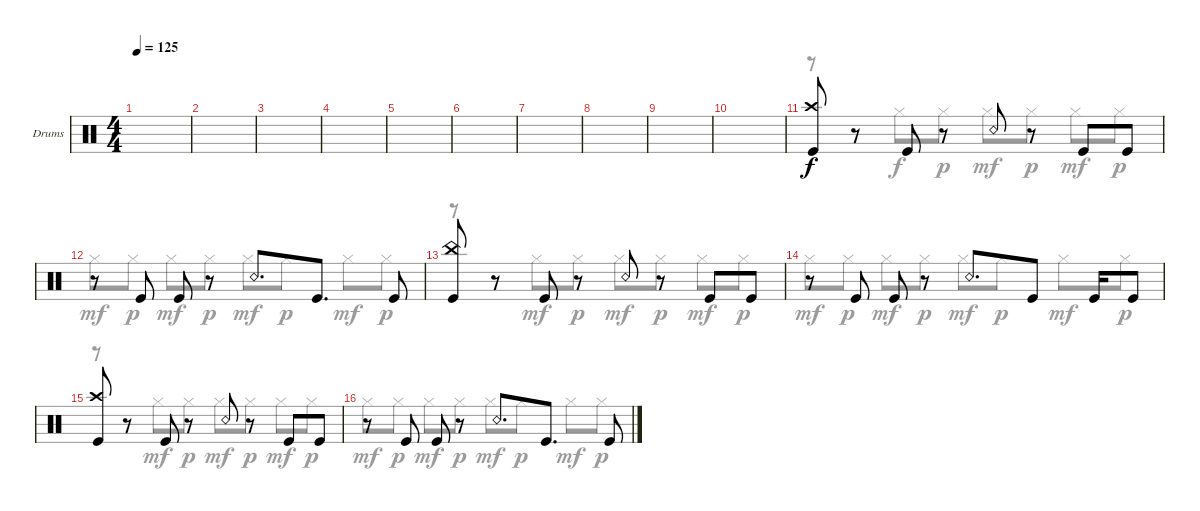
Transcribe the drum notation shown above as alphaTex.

\defaultSystemsLayout 4
\bracketExtendMode groupsimilarinstruments
\firstSystemTrackNameOrientation horizontal
\otherSystemsTrackNameOrientation horizontal
\track ("Drumkit" "Drums") {instrument percussion}
\staff {score}
\articulation defaults
\voice
\ts (4 4)
\tempo 125
\clef neutral
\ks c
|
|
|
|
|
|
|
|
|
|
("Kick (hit)" "Crash high (hit)").8 r.8 "Kick (hit)".8 r.8 "Snare (rim shot)".8 r.8 "Kick (hit)".8 "Kick (hit)".8 |
r.8 "Kick (hit)".8 "Kick (hit)".8 r.8 "Snare (rim shot)".8{d} "Kick (hit)".8{d} "Kick (hit)".8 |
("Kick (hit)" "China (hit)").8 r.8 "Kick (hit)".8 r.8 "Snare (rim shot)".8 r.8 "Kick (hit)".8 "Kick (hit)".8 |
r.8 "Kick (hit)".8 "Kick (hit)".8 r.8 "Snare (rim shot)".8{d} "Kick (hit)".8 "Kick (hit)".16 "Kick (hit)".8 |
("Kick (hit)" "Crash high (hit)").8 r.8 "Kick (hit)".8 r.8 "Snare (rim shot)".8 r.8 "Kick (hit)".8 "Kick (hit)".8 |
r.8 "Kick (hit)".8 "Kick (hit)".8 r.8 "Snare (rim shot)".8{d} "Kick (hit)".8{d} "Kick (hit)".8
\voice
\clef neutral
\ottava regular
\simile none
\ks c
|
|
|
|
|
|
|
|
|
|
r.8 r.8 "Hi-Hat (closed)".8 "Hi-Hat (closed)".8{dy p} "Hi-Hat (closed)".8{dy mf} "Hi-Hat (closed)".8{dy p} "Hi-Hat (closed)".8{dy mf} "Hi-Hat (closed)".8{dy p} |
"Hi-Hat (closed)".8{dy mf} "Hi-Hat (closed)".8{dy p} "Hi-Hat (closed)".8{dy mf} "Hi-Hat (closed)".8{dy p} "Hi-Hat (closed)".8{dy mf} "Hi-Hat (closed)".8{dy p} "Hi-Hat (closed)".8{dy mf} "Hi-Hat (closed)".8{dy p} |
r.8 r.8 "Hi-Hat (closed)".8{dy mf} "Hi-Hat (closed)".8{dy p} "Hi-Hat (closed)".8{dy mf} "Hi-Hat (closed)".8{dy p} "Hi-Hat (closed)".8{dy mf} "Hi-Hat (closed)".8{dy p} |
"Hi-Hat (closed)".8{dy mf} "Hi-Hat (closed)".8{dy p} "Hi-Hat (closed)".8{dy mf} "Hi-Hat (closed)".8{dy p} "Hi-Hat (closed)".8{dy mf} "Hi-Hat (closed)".8{dy p} "Hi-Hat (closed)".8{dy mf} "Hi-Hat (closed)".8{dy p} |
r.8 r.8 "Hi-Hat (closed)".8{dy mf} "Hi-Hat (closed)".8{dy p} "Hi-Hat (closed)".8{dy mf} "Hi-Hat (closed)".8{dy p} "Hi-Hat (closed)".8{dy mf} "Hi-Hat (closed)".8{dy p} |
"Hi-Hat (closed)".8{dy mf} "Hi-Hat (closed)".8{dy p} "Hi-Hat (closed)".8{dy mf} "Hi-Hat (closed)".8{dy p} "Hi-Hat (closed)".8{dy mf} "Hi-Hat (closed)".8{dy p} "Hi-Hat (closed)".8{dy mf} "Hi-Hat (closed)".8{dy p}
